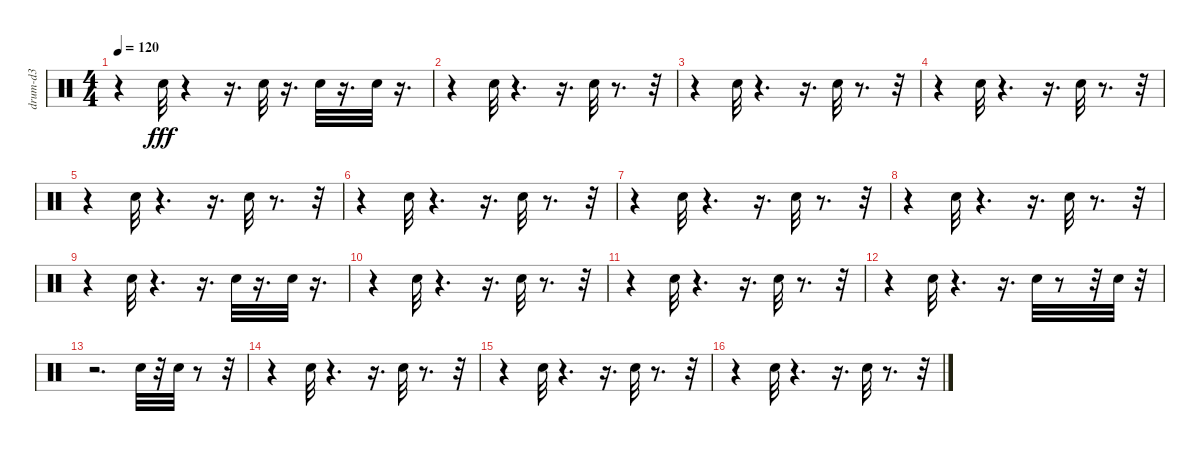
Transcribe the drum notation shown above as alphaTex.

\track ("drum-d3" "drum-d3") {instrument percussion}
\staff {score}
\articulation defaults
\ts (4 4)
\tempo 120
\clef neutral
\ks c
r.4{dy fff} "Snare (hit) 2".32 r.4 r.16{d} "Snare (hit) 2".32 r.16{d} "Snare (hit) 2".32 r.16{d} "Snare (hit) 2".32 r.16{d} |
r.4 "Snare (hit) 2".32 r.4{d} r.16{d} "Snare (hit) 2".32 r.8{d} r.32 |
r.4 "Snare (hit) 2".32 r.4{d} r.16{d} "Snare (hit) 2".32 r.8{d} r.32 |
r.4 "Snare (hit) 2".32 r.4{d} r.16{d} "Snare (hit) 2".32 r.8{d} r.32 |
r.4 "Snare (hit) 2".32 r.4{d} r.16{d} "Snare (hit) 2".32 r.8{d} r.32 |
r.4 "Snare (hit) 2".32 r.4{d} r.16{d} "Snare (hit) 2".32 r.8{d} r.32 |
r.4 "Snare (hit) 2".32 r.4{d} r.16{d} "Snare (hit) 2".32 r.8{d} r.32 |
r.4 "Snare (hit) 2".32 r.4{d} r.16{d} "Snare (hit) 2".32 r.8{d} r.32 |
r.4 "Snare (hit) 2".32 r.4{d} r.16{d} "Snare (hit) 2".32 r.16{d} "Snare (hit) 2".32 r.16{d} |
r.4 "Snare (hit) 2".32 r.4{d} r.16{d} "Snare (hit) 2".32 r.8{d} r.32 |
r.4 "Snare (hit) 2".32 r.4{d} r.16{d} "Snare (hit) 2".32 r.8{d} r.32 |
r.4 "Snare (hit) 2".32 r.4{d} r.16{d} "Snare (hit) 2".32 r.8 r.32 "Snare (hit) 2".32 r.32 |
r.2{d} "Snare (hit) 2".32 r.32 "Snare (hit) 2".32 r.8 r.32 |
r.4 "Snare (hit) 2".32 r.4{d} r.16{d} "Snare (hit) 2".32 r.8{d} r.32 |
r.4 "Snare (hit) 2".32 r.4{d} r.16{d} "Snare (hit) 2".32 r.8{d} r.32 |
r.4 "Snare (hit) 2".32 r.4{d} r.16{d} "Snare (hit) 2".32 r.8{d} r.32
